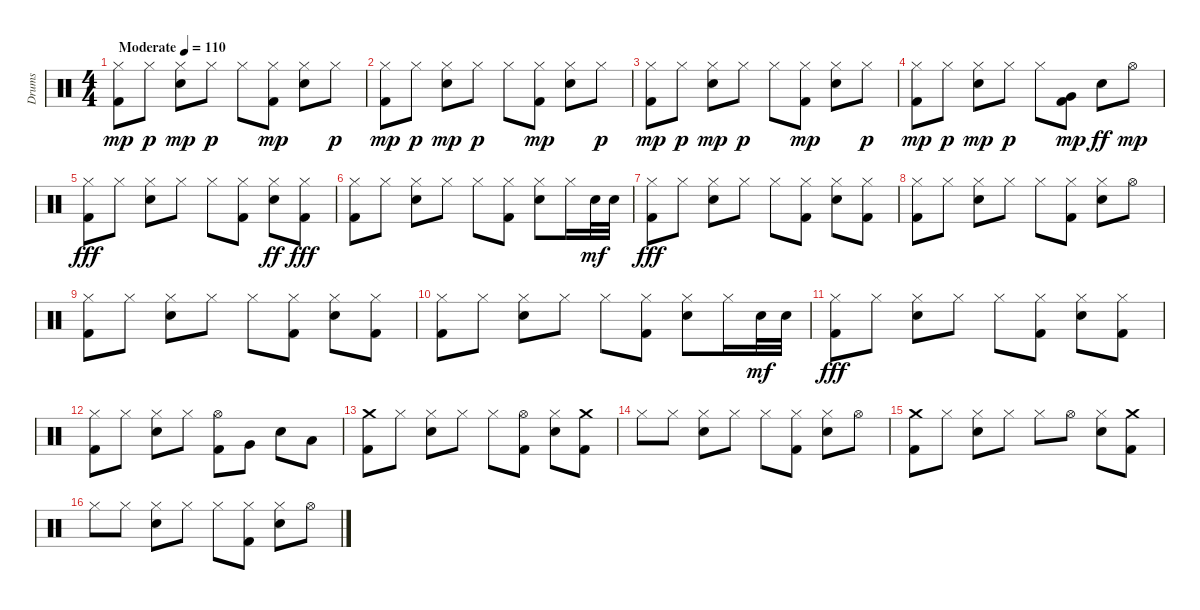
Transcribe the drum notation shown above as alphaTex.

\track ("Drums" "Drums") {instrument percussion}
\staff {score}
\articulation defaults
\ts (4 4)
\tempo (110 "Moderate")
\clef neutral
\ks c
("Hi-Hat (closed)" "Kick (hit) 2").8{dy mp volume 10} "Hi-Hat (closed)".8{dy p} ("Hi-Hat (closed)" "Snare (hit) 2").8{dy mp} "Hi-Hat (closed)".8{dy p} "Hi-Hat (closed)".8 ("Hi-Hat (closed)" "Kick (hit) 2").8{dy mp} ("Hi-Hat (closed)" "Snare (hit) 2").8 "Hi-Hat (closed)".8{dy p} |
("Hi-Hat (closed)" "Kick (hit) 2").8{dy mp} "Hi-Hat (closed)".8{dy p} ("Hi-Hat (closed)" "Snare (hit) 2").8{dy mp} "Hi-Hat (closed)".8{dy p} "Hi-Hat (closed)".8 ("Hi-Hat (closed)" "Kick (hit) 2").8{dy mp} ("Hi-Hat (closed)" "Snare (hit) 2").8 "Hi-Hat (closed)".8{dy p} |
("Hi-Hat (closed)" "Kick (hit) 2").8{dy mp} "Hi-Hat (closed)".8{dy p} ("Hi-Hat (closed)" "Snare (hit) 2").8{dy mp} "Hi-Hat (closed)".8{dy p} "Hi-Hat (closed)".8 ("Hi-Hat (closed)" "Kick (hit) 2").8{dy mp} ("Hi-Hat (closed)" "Snare (hit) 2").8 "Hi-Hat (closed)".8{dy p} |
("Hi-Hat (closed)" "Kick (hit) 2").8{dy mp} "Hi-Hat (closed)".8{dy p} ("Hi-Hat (closed)" "Snare (hit) 2").8{dy mp} "Hi-Hat (closed)".8{dy p} "Hi-Hat (closed)".8 ("Very Low Tom (hit)" "Kick (hit) 2").8{dy mp volume 14} "Snare (hit) 2".8{dy ff} "Hi-Hat (open)".8{dy mp} |
("Hi-Hat (closed)" "Kick (hit) 2").8{dy fff} "Hi-Hat (closed)".8 ("Hi-Hat (closed)" "Electric Snare (hit)").8 "Hi-Hat (closed)".8 "Hi-Hat (closed)".8 ("Hi-Hat (closed)" "Kick (hit) 2").8 ("Hi-Hat (closed)" "Electric Snare (hit)").8{dy ff} ("Hi-Hat (closed)" "Kick (hit) 2").8{dy fff} |
("Hi-Hat (closed)" "Kick (hit) 2").8 "Hi-Hat (closed)".8 ("Hi-Hat (closed)" "Electric Snare (hit)").8 "Hi-Hat (closed)".8 "Hi-Hat (closed)".8 ("Hi-Hat (closed)" "Kick (hit) 2").8 ("Hi-Hat (closed)" "Electric Snare (hit)").8 "Hi-Hat (closed)".16 "Electric Snare (hit)".32{dy mf} "Electric Snare (hit)".32 |
("Hi-Hat (closed)" "Kick (hit) 2").8{dy fff} "Hi-Hat (closed)".8 ("Hi-Hat (closed)" "Electric Snare (hit)").8 "Hi-Hat (closed)".8 "Hi-Hat (closed)".8 ("Hi-Hat (closed)" "Kick (hit) 2").8 ("Hi-Hat (closed)" "Electric Snare (hit)").8 ("Hi-Hat (closed)" "Kick (hit) 2").8 |
("Hi-Hat (closed)" "Kick (hit) 2").8 "Hi-Hat (closed)".8 ("Hi-Hat (closed)" "Electric Snare (hit)").8 "Hi-Hat (closed)".8 "Hi-Hat (closed)".8 ("Hi-Hat (closed)" "Kick (hit) 2").8 ("Hi-Hat (closed)" "Electric Snare (hit)").8 "Hi-Hat (open)".8 |
("Hi-Hat (closed)" "Kick (hit) 2").8 "Hi-Hat (closed)".8 ("Hi-Hat (closed)" "Electric Snare (hit)").8 "Hi-Hat (closed)".8 "Hi-Hat (closed)".8 ("Hi-Hat (closed)" "Kick (hit) 2").8 ("Hi-Hat (closed)" "Electric Snare (hit)").8 ("Hi-Hat (closed)" "Kick (hit) 2").8 |
("Hi-Hat (closed)" "Kick (hit) 2").8 "Hi-Hat (closed)".8 ("Hi-Hat (closed)" "Electric Snare (hit)").8 "Hi-Hat (closed)".8 "Hi-Hat (closed)".8 ("Hi-Hat (closed)" "Kick (hit) 2").8 ("Hi-Hat (closed)" "Electric Snare (hit)").8 "Hi-Hat (closed)".16 "Electric Snare (hit)".32{dy mf} "Electric Snare (hit)".32 |
("Hi-Hat (closed)" "Kick (hit) 2").8{dy fff} "Hi-Hat (closed)".8 ("Hi-Hat (closed)" "Electric Snare (hit)").8 "Hi-Hat (closed)".8 "Hi-Hat (closed)".8 ("Hi-Hat (closed)" "Kick (hit) 2").8 ("Hi-Hat (closed)" "Electric Snare (hit)").8 ("Hi-Hat (closed)" "Kick (hit) 2").8 |
("Hi-Hat (closed)" "Kick (hit) 2").8 "Hi-Hat (closed)".8 ("Hi-Hat (closed)" "Electric Snare (hit)").8 "Hi-Hat (closed)".8 ("Hi-Hat (open)" "Kick (hit) 2").8 "Very Low Tom (hit)".8 "Electric Snare (hit)".8 "Low Tom (hit)".8 |
("Crash medium (hit)" "Kick (hit) 2").8 "Hi-Hat (closed)".8 ("Hi-Hat (closed)" "Electric Snare (hit)").8 "Hi-Hat (closed)".8 "Hi-Hat (closed)".8 ("Hi-Hat (open)" "Kick (hit) 2").8 ("Hi-Hat (closed)" "Electric Snare (hit)").8 ("Crash medium (hit)" "Kick (hit) 2").8 |
"Hi-Hat (closed)".8 "Hi-Hat (closed)".8 ("Hi-Hat (closed)" "Electric Snare (hit)").8 "Hi-Hat (closed)".8 "Hi-Hat (closed)".8 ("Hi-Hat (closed)" "Kick (hit) 2").8 ("Hi-Hat (closed)" "Electric Snare (hit)").8 "Hi-Hat (open)".8 |
("Crash medium (hit)" "Kick (hit) 2").8 "Hi-Hat (closed)".8 ("Hi-Hat (closed)" "Electric Snare (hit)").8 "Hi-Hat (closed)".8 "Hi-Hat (closed)".8 "Hi-Hat (open)".8 ("Hi-Hat (closed)" "Electric Snare (hit)").8 ("Crash medium (hit)" "Kick (hit) 2").8 |
"Hi-Hat (closed)".8 "Hi-Hat (closed)".8 ("Hi-Hat (closed)" "Electric Snare (hit)").8 "Hi-Hat (closed)".8 "Hi-Hat (closed)".8 ("Hi-Hat (closed)" "Kick (hit) 2").8 ("Hi-Hat (closed)" "Electric Snare (hit)").8 "Hi-Hat (open)".8
